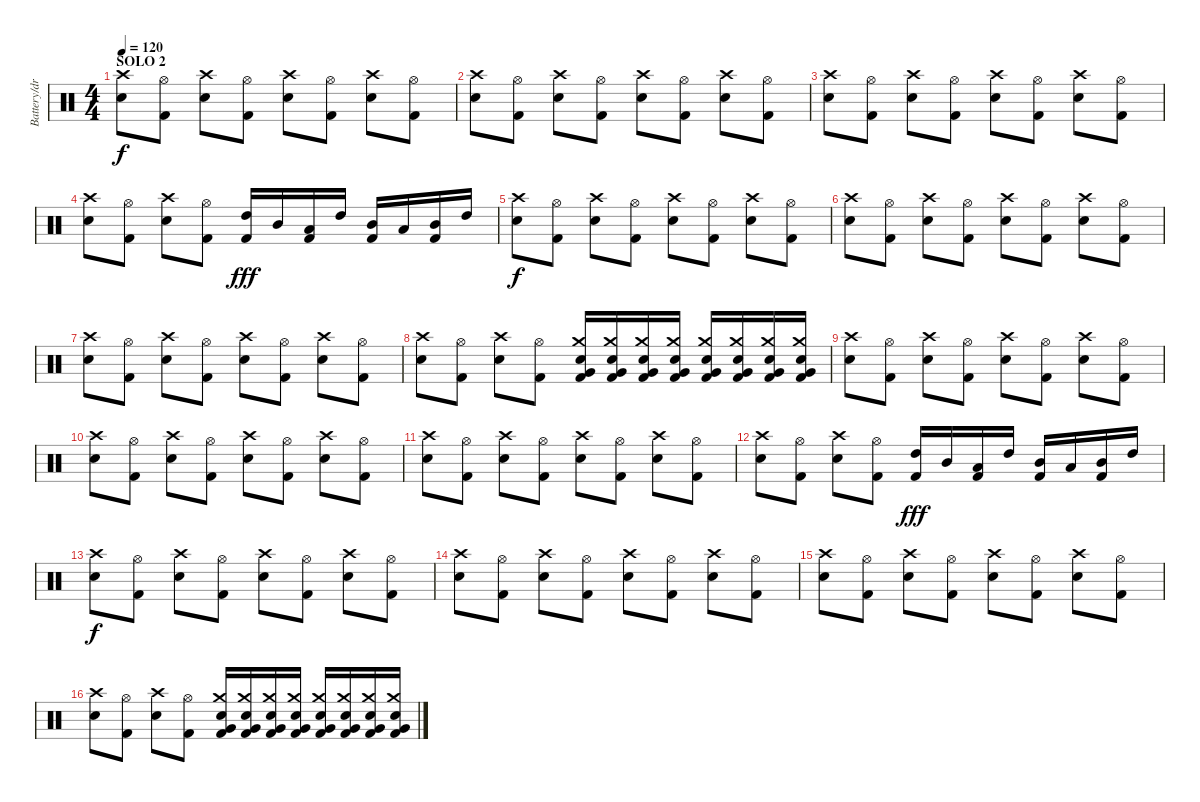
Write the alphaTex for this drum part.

\track ("Battery/drums" "Battery/dr") {instrument percussion}
\staff {score}
\articulation defaults
\ts (4 4)
\section ("" "SOLO 2")
\tempo 120
\clef neutral
\ks c
("Crash high (hit)" "Electric Snare (hit)").8{dy f volume 13} ("Hi-Hat (open)" "Kick (hit) 2").8 ("Crash high (hit)" "Electric Snare (hit)").8 ("Hi-Hat (open)" "Kick (hit) 2").8 ("Crash high (hit)" "Electric Snare (hit)").8 ("Hi-Hat (open)" "Kick (hit) 2").8 ("Crash high (hit)" "Electric Snare (hit)").8 ("Hi-Hat (open)" "Kick (hit) 2").8 |
("Crash high (hit)" "Electric Snare (hit)").8 ("Hi-Hat (open)" "Kick (hit) 2").8 ("Crash high (hit)" "Electric Snare (hit)").8 ("Hi-Hat (open)" "Kick (hit) 2").8 ("Crash high (hit)" "Electric Snare (hit)").8 ("Hi-Hat (open)" "Kick (hit) 2").8 ("Crash high (hit)" "Electric Snare (hit)").8 ("Hi-Hat (open)" "Kick (hit) 2").8 |
("Crash high (hit)" "Electric Snare (hit)").8 ("Hi-Hat (open)" "Kick (hit) 2").8 ("Crash high (hit)" "Electric Snare (hit)").8 ("Hi-Hat (open)" "Kick (hit) 2").8 ("Crash high (hit)" "Electric Snare (hit)").8 ("Hi-Hat (open)" "Kick (hit) 2").8 ("Crash high (hit)" "Electric Snare (hit)").8 ("Hi-Hat (open)" "Kick (hit) 2").8 |
("Crash high (hit)" "Electric Snare (hit)").8 ("Hi-Hat (open)" "Kick (hit) 2").8 ("Crash high (hit)" "Electric Snare (hit)").8 ("Hi-Hat (open)" "Kick (hit) 2").8 ("High Tom (hit)" "Kick (hit) 2").16{dy fff} "Mid Tom (hit)".16 ("Low Tom (hit)" "Kick (hit) 2").16 "High Tom (hit)".16 ("Mid Tom (hit)" "Kick (hit) 2").16 "Low Tom (hit)".16 ("Mid Tom (hit)" "Kick (hit) 2").16 "High Tom (hit)".16 |
("Crash high (hit)" "Electric Snare (hit)").8{dy f} ("Hi-Hat (open)" "Kick (hit) 2").8 ("Crash high (hit)" "Electric Snare (hit)").8 ("Hi-Hat (open)" "Kick (hit) 2").8 ("Crash high (hit)" "Electric Snare (hit)").8 ("Hi-Hat (open)" "Kick (hit) 2").8 ("Crash high (hit)" "Electric Snare (hit)").8 ("Hi-Hat (open)" "Kick (hit) 2").8 |
("Crash high (hit)" "Electric Snare (hit)").8 ("Hi-Hat (open)" "Kick (hit) 2").8 ("Crash high (hit)" "Electric Snare (hit)").8 ("Hi-Hat (open)" "Kick (hit) 2").8 ("Crash high (hit)" "Electric Snare (hit)").8 ("Hi-Hat (open)" "Kick (hit) 2").8 ("Crash high (hit)" "Electric Snare (hit)").8 ("Hi-Hat (open)" "Kick (hit) 2").8 |
("Crash high (hit)" "Electric Snare (hit)").8 ("Hi-Hat (open)" "Kick (hit) 2").8 ("Crash high (hit)" "Electric Snare (hit)").8 ("Hi-Hat (open)" "Kick (hit) 2").8 ("Crash high (hit)" "Electric Snare (hit)").8 ("Hi-Hat (open)" "Kick (hit) 2").8 ("Crash high (hit)" "Electric Snare (hit)").8 ("Hi-Hat (open)" "Kick (hit) 2").8 |
("Crash high (hit)" "Electric Snare (hit)").8 ("Hi-Hat (open)" "Kick (hit) 2").8 ("Crash high (hit)" "Electric Snare (hit)").8 ("Hi-Hat (open)" "Kick (hit) 2").8 ("Crash medium (hit)" "Very Low Tom (hit)" "Electric Snare (hit)" "Kick (hit) 2").16 ("Crash medium (hit)" "Very Low Tom (hit)" "Electric Snare (hit)" "Kick (hit) 2").16 ("Crash medium (hit)" "Very Low Tom (hit)" "Electric Snare (hit)" "Kick (hit) 2").16 ("Crash medium (hit)" "Very Low Tom (hit)" "Electric Snare (hit)" "Kick (hit) 2").16 ("Crash medium (hit)" "Very Low Tom (hit)" "Electric Snare (hit)" "Kick (hit) 2").16 ("Crash medium (hit)" "Very Low Tom (hit)" "Electric Snare (hit)" "Kick (hit) 2").16 ("Crash medium (hit)" "Very Low Tom (hit)" "Electric Snare (hit)" "Kick (hit) 2").16 ("Crash medium (hit)" "Very Low Tom (hit)" "Electric Snare (hit)" "Kick (hit) 2").16 |
("Crash high (hit)" "Electric Snare (hit)").8{volume 13} ("Hi-Hat (open)" "Kick (hit) 2").8 ("Crash high (hit)" "Electric Snare (hit)").8 ("Hi-Hat (open)" "Kick (hit) 2").8 ("Crash high (hit)" "Electric Snare (hit)").8 ("Hi-Hat (open)" "Kick (hit) 2").8 ("Crash high (hit)" "Electric Snare (hit)").8 ("Hi-Hat (open)" "Kick (hit) 2").8 |
("Crash high (hit)" "Electric Snare (hit)").8 ("Hi-Hat (open)" "Kick (hit) 2").8 ("Crash high (hit)" "Electric Snare (hit)").8 ("Hi-Hat (open)" "Kick (hit) 2").8 ("Crash high (hit)" "Electric Snare (hit)").8 ("Hi-Hat (open)" "Kick (hit) 2").8 ("Crash high (hit)" "Electric Snare (hit)").8 ("Hi-Hat (open)" "Kick (hit) 2").8 |
("Crash high (hit)" "Electric Snare (hit)").8 ("Hi-Hat (open)" "Kick (hit) 2").8 ("Crash high (hit)" "Electric Snare (hit)").8 ("Hi-Hat (open)" "Kick (hit) 2").8 ("Crash high (hit)" "Electric Snare (hit)").8 ("Hi-Hat (open)" "Kick (hit) 2").8 ("Crash high (hit)" "Electric Snare (hit)").8 ("Hi-Hat (open)" "Kick (hit) 2").8 |
("Crash high (hit)" "Electric Snare (hit)").8 ("Hi-Hat (open)" "Kick (hit) 2").8 ("Crash high (hit)" "Electric Snare (hit)").8 ("Hi-Hat (open)" "Kick (hit) 2").8 ("High Tom (hit)" "Kick (hit) 2").16{dy fff} "Mid Tom (hit)".16 ("Low Tom (hit)" "Kick (hit) 2").16 "High Tom (hit)".16 ("Mid Tom (hit)" "Kick (hit) 2").16 "Low Tom (hit)".16 ("Mid Tom (hit)" "Kick (hit) 2").16 "High Tom (hit)".16 |
("Crash high (hit)" "Electric Snare (hit)").8{dy f} ("Hi-Hat (open)" "Kick (hit) 2").8 ("Crash high (hit)" "Electric Snare (hit)").8 ("Hi-Hat (open)" "Kick (hit) 2").8 ("Crash high (hit)" "Electric Snare (hit)").8 ("Hi-Hat (open)" "Kick (hit) 2").8 ("Crash high (hit)" "Electric Snare (hit)").8 ("Hi-Hat (open)" "Kick (hit) 2").8 |
("Crash high (hit)" "Electric Snare (hit)").8 ("Hi-Hat (open)" "Kick (hit) 2").8 ("Crash high (hit)" "Electric Snare (hit)").8 ("Hi-Hat (open)" "Kick (hit) 2").8 ("Crash high (hit)" "Electric Snare (hit)").8 ("Hi-Hat (open)" "Kick (hit) 2").8 ("Crash high (hit)" "Electric Snare (hit)").8 ("Hi-Hat (open)" "Kick (hit) 2").8 |
("Crash high (hit)" "Electric Snare (hit)").8 ("Hi-Hat (open)" "Kick (hit) 2").8 ("Crash high (hit)" "Electric Snare (hit)").8 ("Hi-Hat (open)" "Kick (hit) 2").8 ("Crash high (hit)" "Electric Snare (hit)").8 ("Hi-Hat (open)" "Kick (hit) 2").8 ("Crash high (hit)" "Electric Snare (hit)").8 ("Hi-Hat (open)" "Kick (hit) 2").8 |
("Crash high (hit)" "Electric Snare (hit)").8 ("Hi-Hat (open)" "Kick (hit) 2").8 ("Crash high (hit)" "Electric Snare (hit)").8 ("Hi-Hat (open)" "Kick (hit) 2").8 ("Crash medium (hit)" "Very Low Tom (hit)" "Electric Snare (hit)" "Kick (hit) 2").16 ("Crash medium (hit)" "Very Low Tom (hit)" "Electric Snare (hit)" "Kick (hit) 2").16 ("Crash medium (hit)" "Very Low Tom (hit)" "Electric Snare (hit)" "Kick (hit) 2").16 ("Crash medium (hit)" "Very Low Tom (hit)" "Electric Snare (hit)" "Kick (hit) 2").16 ("Crash medium (hit)" "Very Low Tom (hit)" "Electric Snare (hit)" "Kick (hit) 2").16 ("Crash medium (hit)" "Very Low Tom (hit)" "Electric Snare (hit)" "Kick (hit) 2").16 ("Crash medium (hit)" "Very Low Tom (hit)" "Electric Snare (hit)" "Kick (hit) 2").16 ("Crash medium (hit)" "Very Low Tom (hit)" "Electric Snare (hit)" "Kick (hit) 2").16
